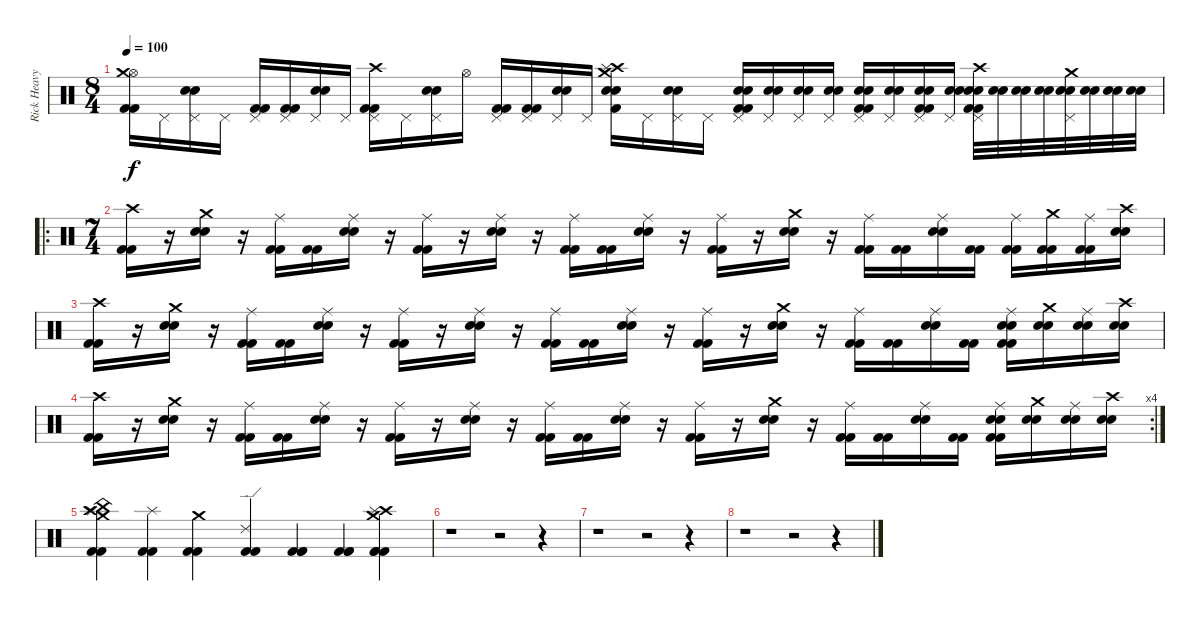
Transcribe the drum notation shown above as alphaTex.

\track ("Rick Heavy" "Rick Heavy") {instrument percussion}
\staff {score}
\articulation defaults
\ts (8 4)
\tempo 100
\clef neutral
\ks c
("Hi-Hat (open)" "Crash medium (hit)" "Kick (hit) 2" "Kick (hit) 2").16{dy f} "Pedal Hi-Hat (hit)".16 ("Pedal Hi-Hat (hit)" "Electric Snare (hit)" "Snare (hit) 2").16 "Pedal Hi-Hat (hit)".16 ("Pedal Hi-Hat (hit)" "Kick (hit) 2" "Kick (hit) 2").16 ("Pedal Hi-Hat (hit)" "Kick (hit) 2" "Kick (hit) 2").16 ("Pedal Hi-Hat (hit)" "Electric Snare (hit)" "Snare (hit) 2").16 "Pedal Hi-Hat (hit)".16 ("Pedal Hi-Hat (hit)" "Crash high (hit)" "Kick (hit) 2" "Kick (hit) 2").16 "Pedal Hi-Hat (hit)".16 ("Pedal Hi-Hat (hit)" "Electric Snare (hit)" "Snare (hit) 2").16 "Hi-Hat (open)".16 ("Pedal Hi-Hat (hit)" "Kick (hit) 2" "Kick (hit) 2").16 ("Pedal Hi-Hat (hit)" "Kick (hit) 2" "Kick (hit) 2").16 ("Pedal Hi-Hat (hit)" "Electric Snare (hit)" "Snare (hit) 2").16 "Pedal Hi-Hat (hit)".16 ("Electric Snare (hit)" "Crash high (hit)" "Splash (hit)" "Crash medium (hit)" "Snare (hit) 2" "Kick (hit) 2").16 "Pedal Hi-Hat (hit)".16 ("Pedal Hi-Hat (hit)" "Electric Snare (hit)" "Snare (hit) 2").16 "Pedal Hi-Hat (hit)".16 ("Pedal Hi-Hat (hit)" "Kick (hit) 2" "Electric Snare (hit)" "Snare (hit) 2" "Kick (hit) 2").16 ("Pedal Hi-Hat (hit)" "Electric Snare (hit)" "Snare (hit) 2").16 ("Pedal Hi-Hat (hit)" "Electric Snare (hit)" "Snare (hit) 2").16 ("Pedal Hi-Hat (hit)" "Electric Snare (hit)" "Snare (hit) 2").16 ("Pedal Hi-Hat (hit)" "Kick (hit) 2" "Electric Snare (hit)" "Snare (hit) 2" "Kick (hit) 2").16 ("Pedal Hi-Hat (hit)" "Electric Snare (hit)" "Snare (hit) 2").16 ("Pedal Hi-Hat (hit)" "Kick (hit) 2" "Electric Snare (hit)" "Snare (hit) 2" "Kick (hit) 2").16 ("Pedal Hi-Hat (hit)" "Electric Snare (hit)" "Snare (hit) 2").16 ("Pedal Hi-Hat (hit)" "Crash high (hit)" "Kick (hit) 2" "Electric Snare (hit)" "Snare (hit) 2" "Kick (hit) 2").32 ("Electric Snare (hit)" "Snare (hit) 2").32 ("Electric Snare (hit)" "Snare (hit) 2").32 ("Electric Snare (hit)" "Snare (hit) 2").32 ("Pedal Hi-Hat (hit)" "Crash medium (hit)" "Electric Snare (hit)" "Snare (hit) 2").32 ("Electric Snare (hit)" "Snare (hit) 2").32 ("Electric Snare (hit)" "Snare (hit) 2").32 ("Electric Snare (hit)" "Snare (hit) 2").32 |
\ro
\ts (7 4)
("Crash high (hit)" "Kick (hit) 2" "Kick (hit) 2").16 r.16 ("Crash medium (hit)" "Electric Snare (hit)" "Snare (hit) 2").16 r.16 ("Ride (middle)" "Kick (hit) 2" "Kick (hit) 2").16 ("Kick (hit) 2" "Kick (hit) 2").16 ("Ride (middle)" "Electric Snare (hit)" "Snare (hit) 2").16 r.16 ("Ride (middle)" "Kick (hit) 2" "Kick (hit) 2").16 r.16 ("Ride (middle)" "Electric Snare (hit)" "Snare (hit) 2").16 r.16 ("Ride (middle)" "Kick (hit) 2" "Kick (hit) 2").16 ("Kick (hit) 2" "Kick (hit) 2").16 ("Ride (middle)" "Electric Snare (hit)" "Snare (hit) 2").16 r.16 ("Ride (middle)" "Kick (hit) 2" "Kick (hit) 2").16 r.16 ("Crash medium (hit)" "Electric Snare (hit)" "Snare (hit) 2").16 r.16 ("Ride (middle)" "Kick (hit) 2" "Kick (hit) 2").16 ("Kick (hit) 2" "Kick (hit) 2").16 ("Ride (middle)" "Electric Snare (hit)" "Snare (hit) 2").16 ("Kick (hit) 2" "Kick (hit) 2").16 ("Ride (middle)" "Kick (hit) 2" "Kick (hit) 2").16 ("Crash medium (hit)" "Kick (hit) 2" "Kick (hit) 2").16 ("Ride (middle)" "Kick (hit) 2" "Kick (hit) 2").16 ("Crash high (hit)" "Electric Snare (hit)" "Snare (hit) 2").16 |
("Crash high (hit)" "Kick (hit) 2" "Kick (hit) 2").16 r.16 ("Crash medium (hit)" "Electric Snare (hit)" "Snare (hit) 2").16 r.16 ("Ride (middle)" "Kick (hit) 2" "Kick (hit) 2").16 ("Kick (hit) 2" "Kick (hit) 2").16 ("Ride (middle)" "Electric Snare (hit)" "Snare (hit) 2").16 r.16 ("Ride (middle)" "Kick (hit) 2" "Kick (hit) 2").16 r.16 ("Ride (middle)" "Electric Snare (hit)" "Snare (hit) 2").16 r.16 ("Ride (middle)" "Kick (hit) 2" "Kick (hit) 2").16 ("Kick (hit) 2" "Kick (hit) 2").16 ("Ride (middle)" "Electric Snare (hit)" "Snare (hit) 2").16 r.16 ("Ride (middle)" "Kick (hit) 2" "Kick (hit) 2").16 r.16 ("Crash medium (hit)" "Electric Snare (hit)" "Snare (hit) 2").16 r.16 ("Ride (middle)" "Kick (hit) 2" "Kick (hit) 2").16 ("Kick (hit) 2" "Kick (hit) 2").16 ("Ride (middle)" "Electric Snare (hit)" "Snare (hit) 2").16 ("Kick (hit) 2" "Kick (hit) 2").16 ("Ride (middle)" "Kick (hit) 2" "Electric Snare (hit)" "Snare (hit) 2" "Kick (hit) 2").16 ("Crash medium (hit)" "Electric Snare (hit)" "Snare (hit) 2").16 ("Ride (middle)" "Electric Snare (hit)" "Snare (hit) 2").16 ("Crash high (hit)" "Electric Snare (hit)" "Snare (hit) 2").16 |
\rc 4
("Crash high (hit)" "Kick (hit) 2" "Kick (hit) 2").16 r.16 ("Crash medium (hit)" "Electric Snare (hit)" "Snare (hit) 2").16 r.16 ("Ride (middle)" "Kick (hit) 2" "Kick (hit) 2").16 ("Kick (hit) 2" "Kick (hit) 2").16 ("Ride (middle)" "Electric Snare (hit)" "Snare (hit) 2").16 r.16 ("Ride (middle)" "Kick (hit) 2" "Kick (hit) 2").16 r.16 ("Ride (middle)" "Electric Snare (hit)" "Snare (hit) 2").16 r.16 ("Ride (middle)" "Kick (hit) 2" "Kick (hit) 2").16 ("Kick (hit) 2" "Kick (hit) 2").16 ("Ride (middle)" "Electric Snare (hit)" "Snare (hit) 2").16 r.16 ("Ride (middle)" "Kick (hit) 2" "Kick (hit) 2").16 r.16 ("Crash medium (hit)" "Electric Snare (hit)" "Snare (hit) 2").16 r.16 ("Ride (middle)" "Kick (hit) 2" "Kick (hit) 2").16 ("Kick (hit) 2" "Kick (hit) 2").16 ("Ride (middle)" "Electric Snare (hit)" "Snare (hit) 2").16 ("Kick (hit) 2" "Kick (hit) 2").16 ("Ride (middle)" "Kick (hit) 2" "Electric Snare (hit)" "Snare (hit) 2" "Kick (hit) 2").16 ("Crash medium (hit)" "Electric Snare (hit)" "Snare (hit) 2").16 ("Ride (middle)" "Electric Snare (hit)" "Snare (hit) 2").16 ("Crash high (hit)" "Electric Snare (hit)" "Snare (hit) 2").16 |
("China (hit)" "Splash (hit)" "Crash medium (hit)" "Crash high (hit)" "Kick (hit) 2" "Kick (hit) 2").4 ("Splash (hit)" "Kick (hit) 2" "Kick (hit) 2").4 ("Crash medium (hit)" "Kick (hit) 2" "Kick (hit) 2").4 ("Ride (edge) 2" "Kick (hit) 2" "Kick (hit) 2").4 ("Kick (hit) 2" "Kick (hit) 2" "Kick (hit) 2").4 ("Kick (hit) 2" "Kick (hit) 2" "Kick (hit) 2").4 ("Crash high (hit)" "Splash (hit)" "Crash medium (hit)" "Kick (hit) 2" "Kick (hit) 2" "Kick (hit) 2").4 |
r.1 r.2 r.4 |
r.1 r.2 r.4 |
r.1 r.2 r.4
